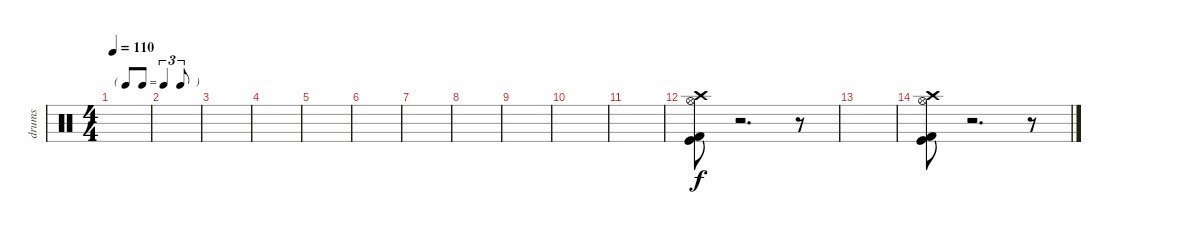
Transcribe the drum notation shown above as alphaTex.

\track ("drums" "drums") {instrument percussion}
\staff {score}
\articulation defaults
\ts (4 4)
\tf triplet8th
\tempo 110
\clef neutral
\ks c
|
|
|
|
|
|
|
|
|
|
|
("Crash high (hit)" "Hi-Hat (open)" "Kick (hit)" "Kick (hit) 2").8 r.2{d} r.8 |
|
("Crash high (hit)" "Hi-Hat (open)" "Kick (hit)" "Kick (hit) 2").8 r.2{d} r.8
